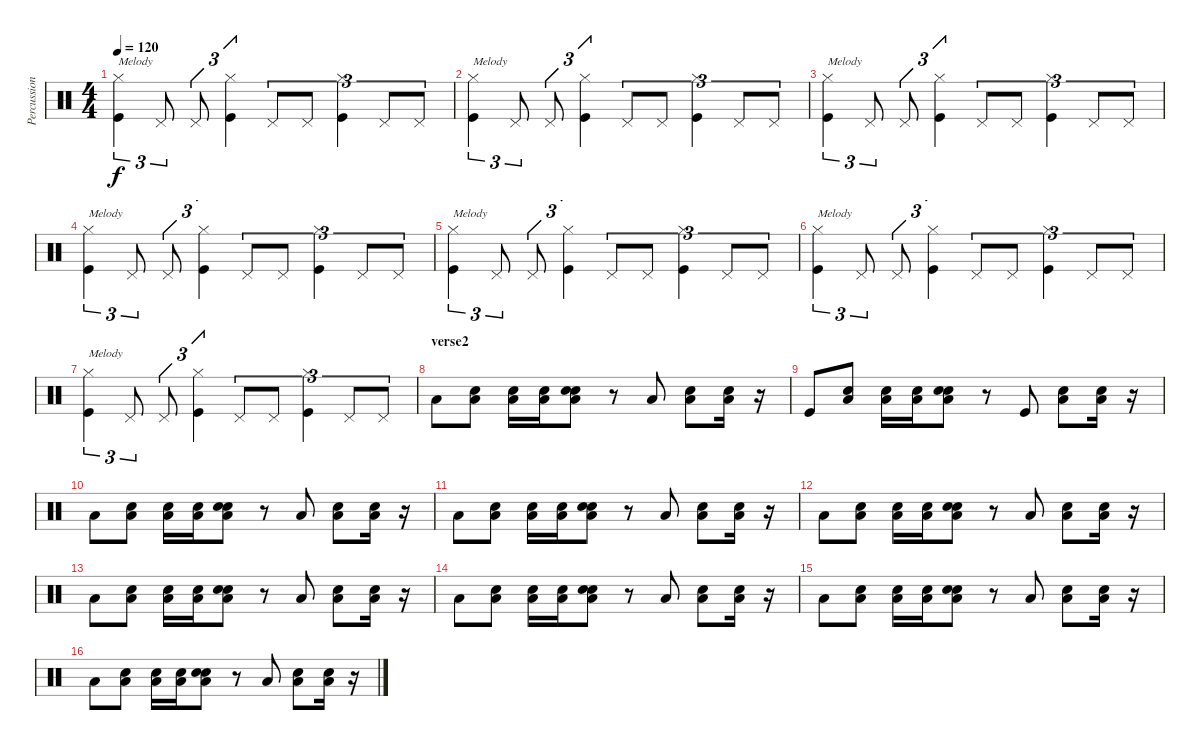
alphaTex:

\track ("Percussions" "Percussion") {instrument percussion}
\staff {score}
\articulation defaults
\ts (4 4)
\tempo 120
\clef neutral
\ks c
("Hi-Hat (closed)" "Kick (hit)").4{tu (3 2) txt "Melody" dy f} "Pedal Hi-Hat (hit)".8{tu (3 2)} "Pedal Hi-Hat (hit)".8{tu (3 2)} ("Hi-Hat (closed)" "Kick (hit)").4{tu (3 2)} "Pedal Hi-Hat (hit)".8{tu (3 2)} "Pedal Hi-Hat (hit)".8{tu (3 2)} ("Hi-Hat (closed)" "Kick (hit)").4{tu (3 2)} "Pedal Hi-Hat (hit)".8{tu (3 2)} "Pedal Hi-Hat (hit)".8{tu (3 2)} |
("Hi-Hat (closed)" "Kick (hit)").4{tu (3 2) txt "Melody"} "Pedal Hi-Hat (hit)".8{tu (3 2)} "Pedal Hi-Hat (hit)".8{tu (3 2)} ("Hi-Hat (closed)" "Kick (hit)").4{tu (3 2)} "Pedal Hi-Hat (hit)".8{tu (3 2)} "Pedal Hi-Hat (hit)".8{tu (3 2)} ("Hi-Hat (closed)" "Kick (hit)").4{tu (3 2)} "Pedal Hi-Hat (hit)".8{tu (3 2)} "Pedal Hi-Hat (hit)".8{tu (3 2)} |
("Hi-Hat (closed)" "Kick (hit)").4{tu (3 2) txt "Melody"} "Pedal Hi-Hat (hit)".8{tu (3 2)} "Pedal Hi-Hat (hit)".8{tu (3 2)} ("Hi-Hat (closed)" "Kick (hit)").4{tu (3 2)} "Pedal Hi-Hat (hit)".8{tu (3 2)} "Pedal Hi-Hat (hit)".8{tu (3 2)} ("Hi-Hat (closed)" "Kick (hit)").4{tu (3 2)} "Pedal Hi-Hat (hit)".8{tu (3 2)} "Pedal Hi-Hat (hit)".8{tu (3 2)} |
("Hi-Hat (closed)" "Kick (hit)").4{tu (3 2) txt "Melody"} "Pedal Hi-Hat (hit)".8{tu (3 2)} "Pedal Hi-Hat (hit)".8{tu (3 2)} ("Hi-Hat (closed)" "Kick (hit)").4{tu (3 2)} "Pedal Hi-Hat (hit)".8{tu (3 2)} "Pedal Hi-Hat (hit)".8{tu (3 2)} ("Hi-Hat (closed)" "Kick (hit)").4{tu (3 2)} "Pedal Hi-Hat (hit)".8{tu (3 2)} "Pedal Hi-Hat (hit)".8{tu (3 2)} |
("Hi-Hat (closed)" "Kick (hit)").4{tu (3 2) txt "Melody"} "Pedal Hi-Hat (hit)".8{tu (3 2)} "Pedal Hi-Hat (hit)".8{tu (3 2)} ("Hi-Hat (closed)" "Kick (hit)").4{tu (3 2)} "Pedal Hi-Hat (hit)".8{tu (3 2)} "Pedal Hi-Hat (hit)".8{tu (3 2)} ("Hi-Hat (closed)" "Kick (hit)").4{tu (3 2)} "Pedal Hi-Hat (hit)".8{tu (3 2)} "Pedal Hi-Hat (hit)".8{tu (3 2)} |
("Hi-Hat (closed)" "Kick (hit)").4{tu (3 2) txt "Melody"} "Pedal Hi-Hat (hit)".8{tu (3 2)} "Pedal Hi-Hat (hit)".8{tu (3 2)} ("Hi-Hat (closed)" "Kick (hit)").4{tu (3 2)} "Pedal Hi-Hat (hit)".8{tu (3 2)} "Pedal Hi-Hat (hit)".8{tu (3 2)} ("Hi-Hat (closed)" "Kick (hit)").4{tu (3 2)} "Pedal Hi-Hat (hit)".8{tu (3 2)} "Pedal Hi-Hat (hit)".8{tu (3 2)} |
("Hi-Hat (closed)" "Kick (hit)").4{tu (3 2) txt "Melody"} "Pedal Hi-Hat (hit)".8{tu (3 2)} "Pedal Hi-Hat (hit)".8{tu (3 2)} ("Hi-Hat (closed)" "Kick (hit)").4{tu (3 2)} "Pedal Hi-Hat (hit)".8{tu (3 2)} "Pedal Hi-Hat (hit)".8{tu (3 2)} ("Hi-Hat (closed)" "Kick (hit)").4{tu (3 2)} "Pedal Hi-Hat (hit)".8{tu (3 2)} "Pedal Hi-Hat (hit)".8{tu (3 2)} |
\section ("" "verse2")
"Low Floor Tom (hit)".8 ("Snare (hit)" "Low Floor Tom (hit)").8 ("Snare (hit)" "Low Floor Tom (hit)").16 ("Snare (hit)" "Low Floor Tom (hit)").16 ("Snare (hit)" "Electric Snare (hit)" "Low Floor Tom (hit)").8 r.8 "Low Floor Tom (hit)".8 ("Snare (hit)" "Low Floor Tom (hit)").8 ("Snare (hit)" "Low Floor Tom (hit)").16 r.16 |
"Kick (hit)".8 ("Snare (hit)" "Low Floor Tom (hit)").8 ("Snare (hit)" "Low Floor Tom (hit)").16 ("Snare (hit)" "Low Floor Tom (hit)").16 ("Snare (hit)" "Electric Snare (hit)" "Low Floor Tom (hit)").8 r.8 "Kick (hit)".8 ("Snare (hit)" "Low Floor Tom (hit)").8 ("Snare (hit)" "Low Floor Tom (hit)").16 r.16 |
"Low Floor Tom (hit)".8 ("Snare (hit)" "Low Floor Tom (hit)").8 ("Snare (hit)" "Low Floor Tom (hit)").16 ("Snare (hit)" "Low Floor Tom (hit)").16 ("Snare (hit)" "Electric Snare (hit)" "Low Floor Tom (hit)").8 r.8 "Low Floor Tom (hit)".8 ("Snare (hit)" "Low Floor Tom (hit)").8 ("Snare (hit)" "Low Floor Tom (hit)").16 r.16 |
"Low Floor Tom (hit)".8 ("Snare (hit)" "Low Floor Tom (hit)").8 ("Snare (hit)" "Low Floor Tom (hit)").16 ("Snare (hit)" "Low Floor Tom (hit)").16 ("Snare (hit)" "Electric Snare (hit)" "Low Floor Tom (hit)").8 r.8 "Low Floor Tom (hit)".8 ("Snare (hit)" "Low Floor Tom (hit)").8 ("Snare (hit)" "Low Floor Tom (hit)").16 r.16 |
"Low Floor Tom (hit)".8 ("Snare (hit)" "Low Floor Tom (hit)").8 ("Snare (hit)" "Low Floor Tom (hit)").16 ("Snare (hit)" "Low Floor Tom (hit)").16 ("Snare (hit)" "Electric Snare (hit)" "Low Floor Tom (hit)").8 r.8 "Low Floor Tom (hit)".8 ("Snare (hit)" "Low Floor Tom (hit)").8 ("Snare (hit)" "Low Floor Tom (hit)").16 r.16 |
"Low Floor Tom (hit)".8 ("Snare (hit)" "Low Floor Tom (hit)").8 ("Snare (hit)" "Low Floor Tom (hit)").16 ("Snare (hit)" "Low Floor Tom (hit)").16 ("Snare (hit)" "Electric Snare (hit)" "Low Floor Tom (hit)").8 r.8 "Low Floor Tom (hit)".8 ("Snare (hit)" "Low Floor Tom (hit)").8 ("Snare (hit)" "Low Floor Tom (hit)").16 r.16 |
"Low Floor Tom (hit)".8 ("Snare (hit)" "Low Floor Tom (hit)").8 ("Snare (hit)" "Low Floor Tom (hit)").16 ("Snare (hit)" "Low Floor Tom (hit)").16 ("Snare (hit)" "Electric Snare (hit)" "Low Floor Tom (hit)").8 r.8 "Low Floor Tom (hit)".8 ("Snare (hit)" "Low Floor Tom (hit)").8 ("Snare (hit)" "Low Floor Tom (hit)").16 r.16 |
"Low Floor Tom (hit)".8 ("Snare (hit)" "Low Floor Tom (hit)").8 ("Snare (hit)" "Low Floor Tom (hit)").16 ("Snare (hit)" "Low Floor Tom (hit)").16 ("Snare (hit)" "Electric Snare (hit)" "Low Floor Tom (hit)").8 r.8 "Low Floor Tom (hit)".8 ("Snare (hit)" "Low Floor Tom (hit)").8 ("Snare (hit)" "Low Floor Tom (hit)").16 r.16 |
"Low Floor Tom (hit)".8 ("Snare (hit)" "Low Floor Tom (hit)").8 ("Snare (hit)" "Low Floor Tom (hit)").16 ("Snare (hit)" "Low Floor Tom (hit)").16 ("Snare (hit)" "Electric Snare (hit)" "Low Floor Tom (hit)").8 r.8 "Low Floor Tom (hit)".8 ("Snare (hit)" "Low Floor Tom (hit)").8 ("Snare (hit)" "Low Floor Tom (hit)").16 r.16
